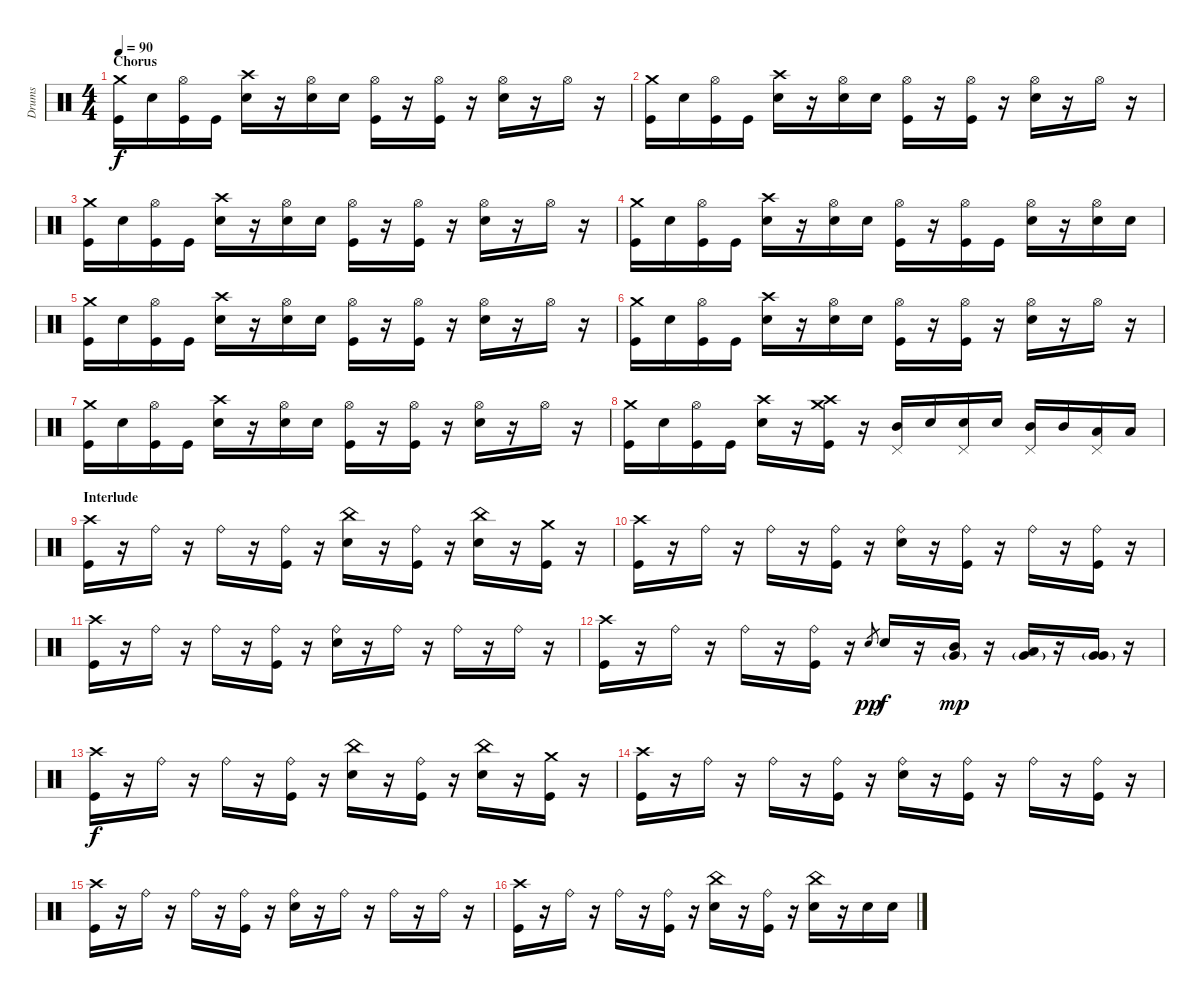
\track ("Drums" "Drums") {instrument percussion}
\staff {score}
\articulation defaults
\ts (4 4)
\section ("" "Chorus")
\tempo 90
\clef neutral
\ks c
("Crash medium (hit)" "Kick (hit)").16{dy f} "Snare (hit) 2".16 ("Hi-Hat (open)" "Kick (hit)").16 "Kick (hit)".16 ("Crash high (hit)" "Snare (hit) 2").16 r.16 ("Hi-Hat (open)" "Snare (hit) 2").16 "Snare (hit) 2".16 ("Hi-Hat (open)" "Kick (hit)").16 r.16 ("Hi-Hat (open)" "Kick (hit)").16 r.16 ("Hi-Hat (open)" "Snare (hit) 2").16 r.16 "Hi-Hat (open)".16 r.16 |
("Crash medium (hit)" "Kick (hit)").16 "Snare (hit) 2".16 ("Hi-Hat (open)" "Kick (hit)").16 "Kick (hit)".16 ("Crash high (hit)" "Snare (hit) 2").16 r.16 ("Hi-Hat (open)" "Snare (hit) 2").16 "Snare (hit) 2".16 ("Hi-Hat (open)" "Kick (hit)").16 r.16 ("Hi-Hat (open)" "Kick (hit)").16 r.16 ("Hi-Hat (open)" "Snare (hit) 2").16 r.16 "Hi-Hat (open)".16 r.16 |
("Crash medium (hit)" "Kick (hit)").16 "Snare (hit) 2".16 ("Hi-Hat (open)" "Kick (hit)").16 "Kick (hit)".16 ("Crash high (hit)" "Snare (hit) 2").16 r.16 ("Hi-Hat (open)" "Snare (hit) 2").16 "Snare (hit) 2".16 ("Hi-Hat (open)" "Kick (hit)").16 r.16 ("Hi-Hat (open)" "Kick (hit)").16 r.16 ("Hi-Hat (open)" "Snare (hit) 2").16 r.16 "Hi-Hat (open)".16 r.16 |
("Crash medium (hit)" "Kick (hit)").16 "Snare (hit) 2".16 ("Hi-Hat (open)" "Kick (hit)").16 "Kick (hit)".16 ("Crash high (hit)" "Snare (hit) 2").16 r.16 ("Hi-Hat (open)" "Snare (hit) 2").16 "Snare (hit) 2".16 ("Hi-Hat (open)" "Kick (hit)").16 r.16 ("Hi-Hat (open)" "Kick (hit)").16 "Kick (hit)".16 ("Hi-Hat (open)" "Snare (hit) 2").16 r.16 ("Hi-Hat (open)" "Snare (hit) 2").16 "Snare (hit) 2".16 |
("Crash medium (hit)" "Kick (hit)").16 "Snare (hit) 2".16 ("Hi-Hat (open)" "Kick (hit)").16 "Kick (hit)".16 ("Crash high (hit)" "Snare (hit) 2").16 r.16 ("Hi-Hat (open)" "Snare (hit) 2").16 "Snare (hit) 2".16 ("Hi-Hat (open)" "Kick (hit)").16 r.16 ("Hi-Hat (open)" "Kick (hit)").16 r.16 ("Hi-Hat (open)" "Snare (hit) 2").16 r.16 "Hi-Hat (open)".16 r.16 |
("Crash medium (hit)" "Kick (hit)").16 "Snare (hit) 2".16 ("Hi-Hat (open)" "Kick (hit)").16 "Kick (hit)".16 ("Crash high (hit)" "Snare (hit) 2").16 r.16 ("Hi-Hat (open)" "Snare (hit) 2").16 "Snare (hit) 2".16 ("Hi-Hat (open)" "Kick (hit)").16 r.16 ("Hi-Hat (open)" "Kick (hit)").16 r.16 ("Hi-Hat (open)" "Snare (hit) 2").16 r.16 "Hi-Hat (open)".16 r.16 |
("Crash medium (hit)" "Kick (hit)").16 "Snare (hit) 2".16 ("Hi-Hat (open)" "Kick (hit)").16 "Kick (hit)".16 ("Crash high (hit)" "Snare (hit) 2").16 r.16 ("Hi-Hat (open)" "Snare (hit) 2").16 "Snare (hit) 2".16 ("Hi-Hat (open)" "Kick (hit)").16 r.16 ("Hi-Hat (open)" "Kick (hit)").16 r.16 ("Hi-Hat (open)" "Snare (hit) 2").16 r.16 "Hi-Hat (open)".16 r.16 |
("Crash medium (hit)" "Kick (hit)").16 "Snare (hit) 2".16 ("Hi-Hat (open)" "Kick (hit)").16 "Kick (hit)".16 ("Crash high (hit)" "Snare (hit) 2").16 r.16 ("Crash medium (hit)" "Crash high (hit)" "Kick (hit)").16 r.16 ("Pedal Hi-Hat (hit)" "Mid Tom (hit)").16 "Snare (hit) 2".16 ("Pedal Hi-Hat (hit)" "Snare (hit) 2").16 "Snare (hit) 2".16 ("Pedal Hi-Hat (hit)" "Mid Tom (hit)").16 "Mid Tom (hit)".16 ("Pedal Hi-Hat (hit)" "Low Tom (hit)").16 "Low Tom (hit)".16 |
\section ("" "Interlude")
("Crash high (hit)" "Kick (hit)").16 r.16 "Ride (bell)".16 r.16 "Ride (bell)".16 r.16 ("Ride (bell)" "Kick (hit)").16 r.16 ("China (hit)" "Snare (hit) 2").16 r.16 ("Ride (bell)" "Kick (hit)").16 r.16 ("China (hit)" "Snare (hit) 2").16 r.16 ("Crash medium (hit)" "Kick (hit)").16 r.16 |
("Crash high (hit)" "Kick (hit)").16 r.16 "Ride (bell)".16 r.16 "Ride (bell)".16 r.16 ("Ride (bell)" "Kick (hit)").16 r.16 ("Ride (bell)" "Snare (hit) 2").16 r.16 ("Ride (bell)" "Kick (hit)").16 r.16 "Ride (bell)".16 r.16 ("Ride (bell)" "Kick (hit)").16 r.16 |
("Crash high (hit)" "Kick (hit)").16 r.16 "Ride (bell)".16 r.16 "Ride (bell)".16 r.16 ("Ride (bell)" "Kick (hit)").16 r.16 ("Ride (bell)" "Snare (hit) 2").16 r.16 "Ride (bell)".16 r.16 "Ride (bell)".16 r.16 "Ride (bell)".16 r.16 |
("Crash high (hit)" "Kick (hit)").16 r.16 "Ride (bell)".16 r.16 "Ride (bell)".16 r.16 ("Ride (bell)" "Kick (hit)").16 r.16 "Snare (hit) 2".8{gr dy pp} "Snare (hit) 2".16{dy f} r.16 ("Mid Tom (hit)" "Very Low Tom (hit)"{g}).16{dy mp} r.16 ("Low Tom (hit)" "Very Low Tom (hit)"{g}).16 r.16 ("Very Low Tom (hit)" "Very Low Tom (hit)"{g}).16 r.16 |
("Crash high (hit)" "Kick (hit)").16{dy f} r.16 "Ride (bell)".16 r.16 "Ride (bell)".16 r.16 ("Ride (bell)" "Kick (hit)").16 r.16 ("China (hit)" "Snare (hit) 2").16 r.16 ("Ride (bell)" "Kick (hit)").16 r.16 ("China (hit)" "Snare (hit) 2").16 r.16 ("Crash medium (hit)" "Kick (hit)").16 r.16 |
("Crash high (hit)" "Kick (hit)").16 r.16 "Ride (bell)".16 r.16 "Ride (bell)".16 r.16 ("Ride (bell)" "Kick (hit)").16 r.16 ("Ride (bell)" "Snare (hit) 2").16 r.16 ("Ride (bell)" "Kick (hit)").16 r.16 "Ride (bell)".16 r.16 ("Ride (bell)" "Kick (hit)").16 r.16 |
("Crash high (hit)" "Kick (hit)").16 r.16 "Ride (bell)".16 r.16 "Ride (bell)".16 r.16 ("Ride (bell)" "Kick (hit)").16 r.16 ("Ride (bell)" "Snare (hit) 2").16 r.16 "Ride (bell)".16 r.16 "Ride (bell)".16 r.16 "Ride (bell)".16 r.16 |
("Crash high (hit)" "Kick (hit)").16 r.16 "Ride (bell)".16 r.16 "Ride (bell)".16 r.16 ("Ride (bell)" "Kick (hit)").16 r.16 ("China (hit)" "Snare (hit) 2").16 r.16 ("Ride (bell)" "Kick (hit)").16 r.16 ("China (hit)" "Snare (hit) 2").16 r.16 "Snare (hit) 2".16 "Snare (hit) 2".16
